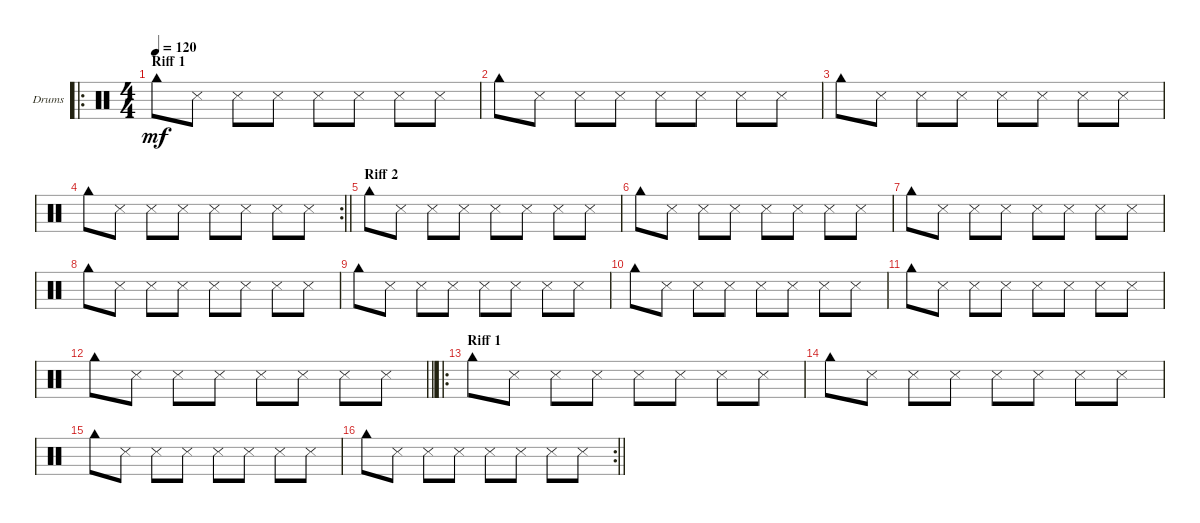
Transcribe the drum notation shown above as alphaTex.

\bracketExtendMode groupsimilarinstruments
\firstSystemTrackNameOrientation horizontal
\otherSystemsTrackNameOrientation horizontal
\track ("Drumkit" "Drums") {instrument percussion}
\staff {score}
\articulation defaults
\ro
\ts (4 4)
\beaming (8 2 2 2 2)
\section ("" "Riff 1")
\tempo 120
\clef neutral
\scale
0.5
\ks c "Cowbell high (hit)".8{dy mf} "Snare (side stick) 3".8 "Snare (side stick) 3".8 "Snare (side stick) 3".8 "Snare (side stick) 3".8 "Snare (side stick) 3".8 "Snare (side stick) 3".8 "Snare (side stick) 3".8
|
\scale
0.25 "Cowbell high (hit)".8 "Snare (side stick) 3".8 "Snare (side stick) 3".8 "Snare (side stick) 3".8 "Snare (side stick) 3".8 "Snare (side stick) 3".8 "Snare (side stick) 3".8 "Snare (side stick) 3".8 |
\scale
0.25 "Cowbell high (hit)".8 "Snare (side stick) 3".8 "Snare (side stick) 3".8 "Snare (side stick) 3".8 "Snare (side stick) 3".8 "Snare (side stick) 3".8 "Snare (side stick) 3".8 "Snare (side stick) 3".8 |
\rc 2
\scale
0.355932
\barLineRight lightlight "Cowbell high (hit)".8 "Snare (side stick) 3".8 "Snare (side stick) 3".8 "Snare (side stick) 3".8 "Snare (side stick) 3".8 "Snare (side stick) 3".8 "Snare (side stick) 3".8 "Snare (side stick) 3".8
|
\section ("" "Riff 2")
\scale
0.322034 "Cowbell high (hit)".8 "Snare (side stick) 3".8 "Snare (side stick) 3".8 "Snare (side stick) 3".8 "Snare (side stick) 3".8 "Snare (side stick) 3".8 "Snare (side stick) 3".8 "Snare (side stick) 3".8 |
\scale
0.322034 "Cowbell high (hit)".8 "Snare (side stick) 3".8 "Snare (side stick) 3".8 "Snare (side stick) 3".8 "Snare (side stick) 3".8 "Snare (side stick) 3".8 "Snare (side stick) 3".8 "Snare (side stick) 3".8 |
\scale
0.333333 "Cowbell high (hit)".8 "Snare (side stick) 3".8 "Snare (side stick) 3".8 "Snare (side stick) 3".8 "Snare (side stick) 3".8 "Snare (side stick) 3".8 "Snare (side stick) 3".8 "Snare (side stick) 3".8 |
\scale
0.333333 "Cowbell high (hit)".8 "Snare (side stick) 3".8 "Snare (side stick) 3".8 "Snare (side stick) 3".8 "Snare (side stick) 3".8 "Snare (side stick) 3".8 "Snare (side stick) 3".8 "Snare (side stick) 3".8 |
\scale
0.333333 "Cowbell high (hit)".8 "Snare (side stick) 3".8 "Snare (side stick) 3".8 "Snare (side stick) 3".8 "Snare (side stick) 3".8 "Snare (side stick) 3".8 "Snare (side stick) 3".8 "Snare (side stick) 3".8 |
\scale
0.333333 "Cowbell high (hit)".8 "Snare (side stick) 3".8 "Snare (side stick) 3".8 "Snare (side stick) 3".8 "Snare (side stick) 3".8 "Snare (side stick) 3".8 "Snare (side stick) 3".8 "Snare (side stick) 3".8 |
\scale
0.333333 "Cowbell high (hit)".8 "Snare (side stick) 3".8 "Snare (side stick) 3".8 "Snare (side stick) 3".8 "Snare (side stick) 3".8 "Snare (side stick) 3".8 "Snare (side stick) 3".8 "Snare (side stick) 3".8 |
\scale
0.333333
\barLineRight lightlight "Cowbell high (hit)".8 "Snare (side stick) 3".8 "Snare (side stick) 3".8 "Snare (side stick) 3".8 "Snare (side stick) 3".8 "Snare (side stick) 3".8 "Snare (side stick) 3".8 "Snare (side stick) 3".8
|
\ro
\section ("" "Riff 1")
\scale
0.377049 "Cowbell high (hit)".8 "Snare (side stick) 3".8 "Snare (side stick) 3".8 "Snare (side stick) 3".8 "Snare (side stick) 3".8 "Snare (side stick) 3".8 "Snare (side stick) 3".8 "Snare (side stick) 3".8 |
\scale
0.311475 "Cowbell high (hit)".8 "Snare (side stick) 3".8 "Snare (side stick) 3".8 "Snare (side stick) 3".8 "Snare (side stick) 3".8 "Snare (side stick) 3".8 "Snare (side stick) 3".8 "Snare (side stick) 3".8 |
\scale
0.311475 "Cowbell high (hit)".8 "Snare (side stick) 3".8 "Snare (side stick) 3".8 "Snare (side stick) 3".8 "Snare (side stick) 3".8 "Snare (side stick) 3".8 "Snare (side stick) 3".8 "Snare (side stick) 3".8 |
\rc 2
\scale
0.355932
\barLineRight lightlight "Cowbell high (hit)".8 "Snare (side stick) 3".8 "Snare (side stick) 3".8 "Snare (side stick) 3".8 "Snare (side stick) 3".8 "Snare (side stick) 3".8 "Snare (side stick) 3".8 "Snare (side stick) 3".8
